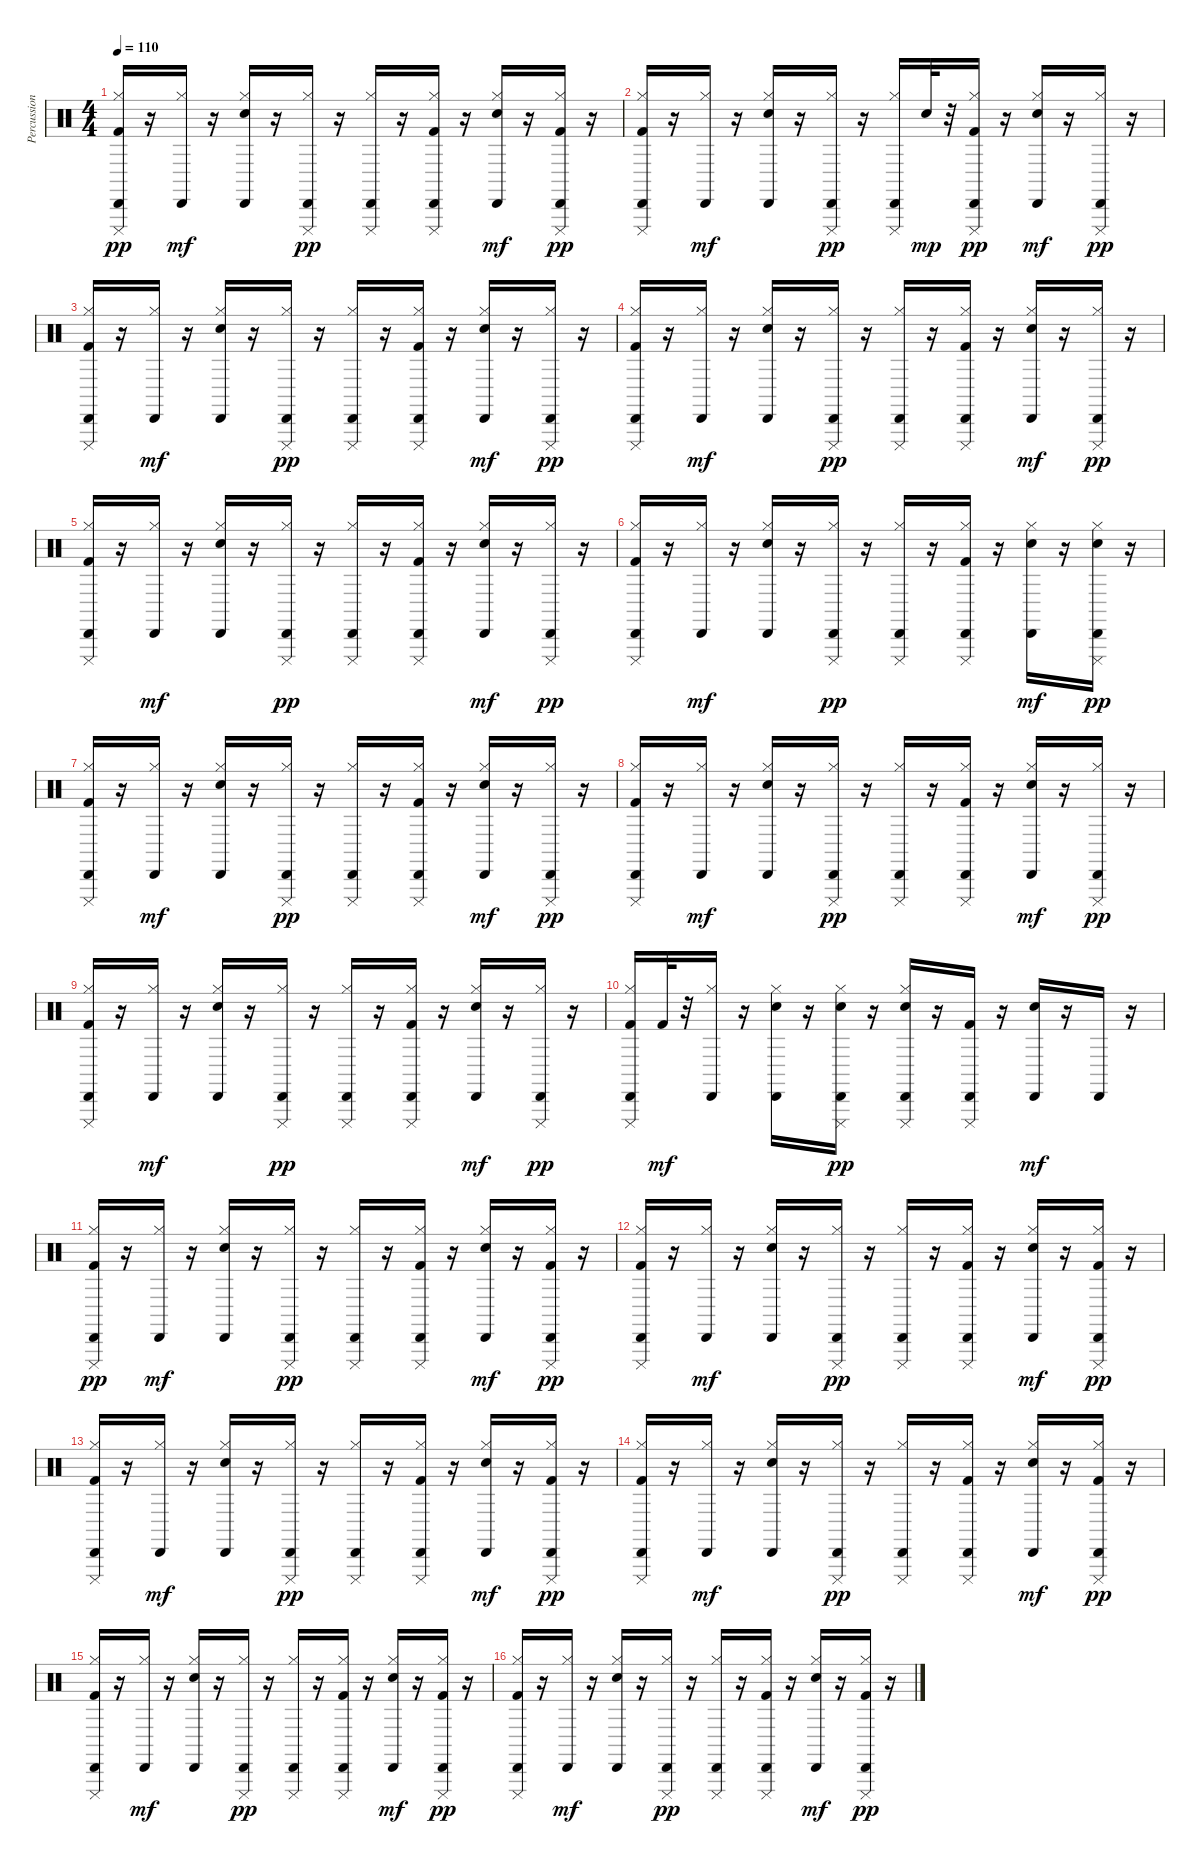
\track ("Percussion" "Percussion") {instrument percussion}
\staff {score}
\articulation defaults
\ts (4 4)
\tempo 110
\clef neutral
\ks c
("Kick (hit) 2" "Hi-Hat (closed)" "Cabasa (hit)" "Cuica (mute)").16{dy pp} r.16 ("Hi-Hat (closed)" "Cabasa (hit)").16{dy mf} r.16 ("Electric Snare (hit)" "Hi-Hat (closed)" "Cabasa (hit)").16 r.16 ("Hi-Hat (closed)" "Cabasa (hit)" "Cuica (mute)").16{dy pp} r.16 ("Hi-Hat (closed)" "Cabasa (hit)" "Cuica (mute)").16 r.16 ("Kick (hit) 2" "Hi-Hat (closed)" "Cabasa (hit)" "Cuica (mute)").16 r.16 ("Electric Snare (hit)" "Hi-Hat (closed)" "Cabasa (hit)").16{dy mf} r.16 ("Kick (hit) 2" "Hi-Hat (closed)" "Cabasa (hit)" "Cuica (mute)").16{dy pp} r.16 |
("Kick (hit) 2" "Hi-Hat (closed)" "Cabasa (hit)" "Cuica (mute)").16 r.16 ("Hi-Hat (closed)" "Cabasa (hit)").16{dy mf} r.16 ("Electric Snare (hit)" "Hi-Hat (closed)" "Cabasa (hit)").16 r.16 ("Hi-Hat (closed)" "Cabasa (hit)" "Cuica (mute)").16{dy pp} r.16 ("Hi-Hat (closed)" "Cabasa (hit)" "Cuica (mute)").16 "Electric Snare (hit)".32{dy mp} r.32 ("Kick (hit) 2" "Hi-Hat (closed)" "Cabasa (hit)" "Cuica (mute)").16{dy pp} r.16 ("Electric Snare (hit)" "Hi-Hat (closed)" "Cabasa (hit)").16{dy mf} r.16 ("Hi-Hat (closed)" "Cabasa (hit)" "Cuica (mute)").16{dy pp} r.16 |
("Kick (hit) 2" "Hi-Hat (closed)" "Cabasa (hit)" "Cuica (mute)").16 r.16 ("Hi-Hat (closed)" "Cabasa (hit)").16{dy mf} r.16 ("Electric Snare (hit)" "Hi-Hat (closed)" "Cabasa (hit)").16 r.16 ("Hi-Hat (closed)" "Cabasa (hit)" "Cuica (mute)").16{dy pp} r.16 ("Hi-Hat (closed)" "Cabasa (hit)" "Cuica (mute)").16 r.16 ("Kick (hit) 2" "Hi-Hat (closed)" "Cabasa (hit)" "Cuica (mute)").16 r.16 ("Electric Snare (hit)" "Hi-Hat (closed)" "Cabasa (hit)").16{dy mf} r.16 ("Hi-Hat (closed)" "Cabasa (hit)" "Cuica (mute)").16{dy pp} r.16 |
("Kick (hit) 2" "Hi-Hat (closed)" "Cabasa (hit)" "Cuica (mute)").16 r.16 ("Hi-Hat (closed)" "Cabasa (hit)").16{dy mf} r.16 ("Electric Snare (hit)" "Hi-Hat (closed)" "Cabasa (hit)").16 r.16 ("Hi-Hat (closed)" "Cabasa (hit)" "Cuica (mute)").16{dy pp} r.16 ("Hi-Hat (closed)" "Cabasa (hit)" "Cuica (mute)").16 r.16 ("Kick (hit) 2" "Hi-Hat (closed)" "Cabasa (hit)" "Cuica (mute)").16 r.16 ("Electric Snare (hit)" "Hi-Hat (closed)" "Cabasa (hit)").16{dy mf} r.16 ("Hi-Hat (closed)" "Cabasa (hit)" "Cuica (mute)").16{dy pp} r.16 |
("Kick (hit) 2" "Hi-Hat (closed)" "Cabasa (hit)" "Cuica (mute)").16 r.16 ("Hi-Hat (closed)" "Cabasa (hit)").16{dy mf} r.16 ("Electric Snare (hit)" "Hi-Hat (closed)" "Cabasa (hit)").16 r.16 ("Hi-Hat (closed)" "Cabasa (hit)" "Cuica (mute)").16{dy pp} r.16 ("Hi-Hat (closed)" "Cabasa (hit)" "Cuica (mute)").16 r.16 ("Kick (hit) 2" "Hi-Hat (closed)" "Cabasa (hit)" "Cuica (mute)").16 r.16 ("Electric Snare (hit)" "Hi-Hat (closed)" "Cabasa (hit)").16{dy mf} r.16 ("Hi-Hat (closed)" "Cabasa (hit)" "Cuica (mute)").16{dy pp} r.16 |
("Kick (hit) 2" "Hi-Hat (closed)" "Cabasa (hit)" "Cuica (mute)").16 r.16 ("Hi-Hat (closed)" "Cabasa (hit)").16{dy mf} r.16 ("Electric Snare (hit)" "Hi-Hat (closed)" "Cabasa (hit)").16 r.16 ("Hi-Hat (closed)" "Cabasa (hit)" "Cuica (mute)").16{dy pp} r.16 ("Hi-Hat (closed)" "Cabasa (hit)" "Cuica (mute)").16 r.16 ("Kick (hit) 2" "Hi-Hat (closed)" "Cabasa (hit)" "Cuica (mute)").16 r.16 ("Electric Snare (hit)" "Hi-Hat (closed)" "Cabasa (hit)").16{dy mf} r.16 ("Electric Snare (hit)" "Hi-Hat (closed)" "Cabasa (hit)" "Cuica (mute)").16{dy pp} r.16 |
("Kick (hit) 2" "Hi-Hat (closed)" "Cabasa (hit)" "Cuica (mute)").16 r.16 ("Hi-Hat (closed)" "Cabasa (hit)").16{dy mf} r.16 ("Electric Snare (hit)" "Hi-Hat (closed)" "Cabasa (hit)").16 r.16 ("Hi-Hat (closed)" "Cabasa (hit)" "Cuica (mute)").16{dy pp} r.16 ("Hi-Hat (closed)" "Cabasa (hit)" "Cuica (mute)").16 r.16 ("Kick (hit) 2" "Hi-Hat (closed)" "Cabasa (hit)" "Cuica (mute)").16 r.16 ("Electric Snare (hit)" "Hi-Hat (closed)" "Cabasa (hit)").16{dy mf} r.16 ("Hi-Hat (closed)" "Cabasa (hit)" "Cuica (mute)").16{dy pp} r.16 |
("Kick (hit) 2" "Hi-Hat (closed)" "Cabasa (hit)" "Cuica (mute)").16 r.16 ("Hi-Hat (closed)" "Cabasa (hit)").16{dy mf} r.16 ("Electric Snare (hit)" "Hi-Hat (closed)" "Cabasa (hit)").16 r.16 ("Hi-Hat (closed)" "Cabasa (hit)" "Cuica (mute)").16{dy pp} r.16 ("Hi-Hat (closed)" "Cabasa (hit)" "Cuica (mute)").16 r.16 ("Kick (hit) 2" "Hi-Hat (closed)" "Cabasa (hit)" "Cuica (mute)").16 r.16 ("Electric Snare (hit)" "Hi-Hat (closed)" "Cabasa (hit)").16{dy mf} r.16 ("Hi-Hat (closed)" "Cabasa (hit)" "Cuica (mute)").16{dy pp} r.16 |
("Kick (hit) 2" "Hi-Hat (closed)" "Cabasa (hit)" "Cuica (mute)").16 r.16 ("Hi-Hat (closed)" "Cabasa (hit)").16{dy mf} r.16 ("Electric Snare (hit)" "Hi-Hat (closed)" "Cabasa (hit)").16 r.16 ("Hi-Hat (closed)" "Cabasa (hit)" "Cuica (mute)").16{dy pp} r.16 ("Hi-Hat (closed)" "Cabasa (hit)" "Cuica (mute)").16 r.16 ("Kick (hit) 2" "Hi-Hat (closed)" "Cabasa (hit)" "Cuica (mute)").16 r.16 ("Electric Snare (hit)" "Hi-Hat (closed)" "Cabasa (hit)").16{dy mf} r.16 ("Hi-Hat (closed)" "Cabasa (hit)" "Cuica (mute)").16{dy pp} r.16 |
("Kick (hit) 2" "Hi-Hat (closed)" "Cabasa (hit)" "Cuica (mute)").16 "Kick (hit) 2".32{dy mf} r.32 ("Hi-Hat (closed)" "Cabasa (hit)").16 r.16 ("Electric Snare (hit)" "Hi-Hat (closed)" "Cabasa (hit)").16 r.16 ("Electric Snare (hit)" "Hi-Hat (closed)" "Cabasa (hit)" "Cuica (mute)").16{dy pp} r.16 ("Electric Snare (hit)" "Hi-Hat (closed)" "Cabasa (hit)" "Cuica (mute)").16 r.16 ("Kick (hit) 2" "Cabasa (hit)" "Cuica (mute)").16 r.16 ("Electric Snare (hit)" "Cabasa (hit)").16{dy mf} r.16 "Cabasa (hit)".16 r.16 |
("Kick (hit) 2" "Hi-Hat (closed)" "Cabasa (hit)" "Cuica (mute)").16{dy pp} r.16 ("Hi-Hat (closed)" "Cabasa (hit)").16{dy mf} r.16 ("Electric Snare (hit)" "Hi-Hat (closed)" "Cabasa (hit)").16 r.16 ("Hi-Hat (closed)" "Cabasa (hit)" "Cuica (mute)").16{dy pp} r.16 ("Hi-Hat (closed)" "Cabasa (hit)" "Cuica (mute)").16 r.16 ("Kick (hit) 2" "Hi-Hat (closed)" "Cabasa (hit)" "Cuica (mute)").16 r.16 ("Electric Snare (hit)" "Hi-Hat (closed)" "Cabasa (hit)").16{dy mf} r.16 ("Kick (hit) 2" "Hi-Hat (closed)" "Cabasa (hit)" "Cuica (mute)").16{dy pp} r.16 |
("Kick (hit) 2" "Hi-Hat (closed)" "Cabasa (hit)" "Cuica (mute)").16 r.16 ("Hi-Hat (closed)" "Cabasa (hit)").16{dy mf} r.16 ("Electric Snare (hit)" "Hi-Hat (closed)" "Cabasa (hit)").16 r.16 ("Hi-Hat (closed)" "Cabasa (hit)" "Cuica (mute)").16{dy pp} r.16 ("Hi-Hat (closed)" "Cabasa (hit)" "Cuica (mute)").16 r.16 ("Kick (hit) 2" "Hi-Hat (closed)" "Cabasa (hit)" "Cuica (mute)").16 r.16 ("Electric Snare (hit)" "Hi-Hat (closed)" "Cabasa (hit)").16{dy mf} r.16 ("Kick (hit) 2" "Hi-Hat (closed)" "Cabasa (hit)" "Cuica (mute)").16{dy pp} r.16 |
("Kick (hit) 2" "Hi-Hat (closed)" "Cabasa (hit)" "Cuica (mute)").16 r.16 ("Hi-Hat (closed)" "Cabasa (hit)").16{dy mf} r.16 ("Electric Snare (hit)" "Hi-Hat (closed)" "Cabasa (hit)").16 r.16 ("Hi-Hat (closed)" "Cabasa (hit)" "Cuica (mute)").16{dy pp} r.16 ("Hi-Hat (closed)" "Cabasa (hit)" "Cuica (mute)").16 r.16 ("Kick (hit) 2" "Hi-Hat (closed)" "Cabasa (hit)" "Cuica (mute)").16 r.16 ("Electric Snare (hit)" "Hi-Hat (closed)" "Cabasa (hit)").16{dy mf} r.16 ("Kick (hit) 2" "Hi-Hat (closed)" "Cabasa (hit)" "Cuica (mute)").16{dy pp} r.16 |
("Kick (hit) 2" "Hi-Hat (closed)" "Cabasa (hit)" "Cuica (mute)").16 r.16 ("Hi-Hat (closed)" "Cabasa (hit)").16{dy mf} r.16 ("Electric Snare (hit)" "Hi-Hat (closed)" "Cabasa (hit)").16 r.16 ("Hi-Hat (closed)" "Cabasa (hit)" "Cuica (mute)").16{dy pp} r.16 ("Hi-Hat (closed)" "Cabasa (hit)" "Cuica (mute)").16 r.16 ("Kick (hit) 2" "Hi-Hat (closed)" "Cabasa (hit)" "Cuica (mute)").16 r.16 ("Electric Snare (hit)" "Hi-Hat (closed)" "Cabasa (hit)").16{dy mf} r.16 ("Kick (hit) 2" "Hi-Hat (closed)" "Cabasa (hit)" "Cuica (mute)").16{dy pp} r.16 |
("Kick (hit) 2" "Hi-Hat (closed)" "Cabasa (hit)" "Cuica (mute)").16 r.16 ("Hi-Hat (closed)" "Cabasa (hit)").16{dy mf} r.16 ("Electric Snare (hit)" "Hi-Hat (closed)" "Cabasa (hit)").16 r.16 ("Hi-Hat (closed)" "Cabasa (hit)" "Cuica (mute)").16{dy pp} r.16 ("Hi-Hat (closed)" "Cabasa (hit)" "Cuica (mute)").16 r.16 ("Kick (hit) 2" "Hi-Hat (closed)" "Cabasa (hit)" "Cuica (mute)").16 r.16 ("Electric Snare (hit)" "Hi-Hat (closed)" "Cabasa (hit)").16{dy mf} r.16 ("Kick (hit) 2" "Hi-Hat (closed)" "Cabasa (hit)" "Cuica (mute)").16{dy pp} r.16 |
("Kick (hit) 2" "Hi-Hat (closed)" "Cabasa (hit)" "Cuica (mute)").16 r.16 ("Hi-Hat (closed)" "Cabasa (hit)").16{dy mf} r.16 ("Electric Snare (hit)" "Hi-Hat (closed)" "Cabasa (hit)").16 r.16 ("Hi-Hat (closed)" "Cabasa (hit)" "Cuica (mute)").16{dy pp} r.16 ("Hi-Hat (closed)" "Cabasa (hit)" "Cuica (mute)").16 r.16 ("Kick (hit) 2" "Hi-Hat (closed)" "Cabasa (hit)" "Cuica (mute)").16 r.16 ("Electric Snare (hit)" "Hi-Hat (closed)" "Cabasa (hit)").16{dy mf} r.16 ("Kick (hit) 2" "Hi-Hat (closed)" "Cabasa (hit)" "Cuica (mute)").16{dy pp} r.16
